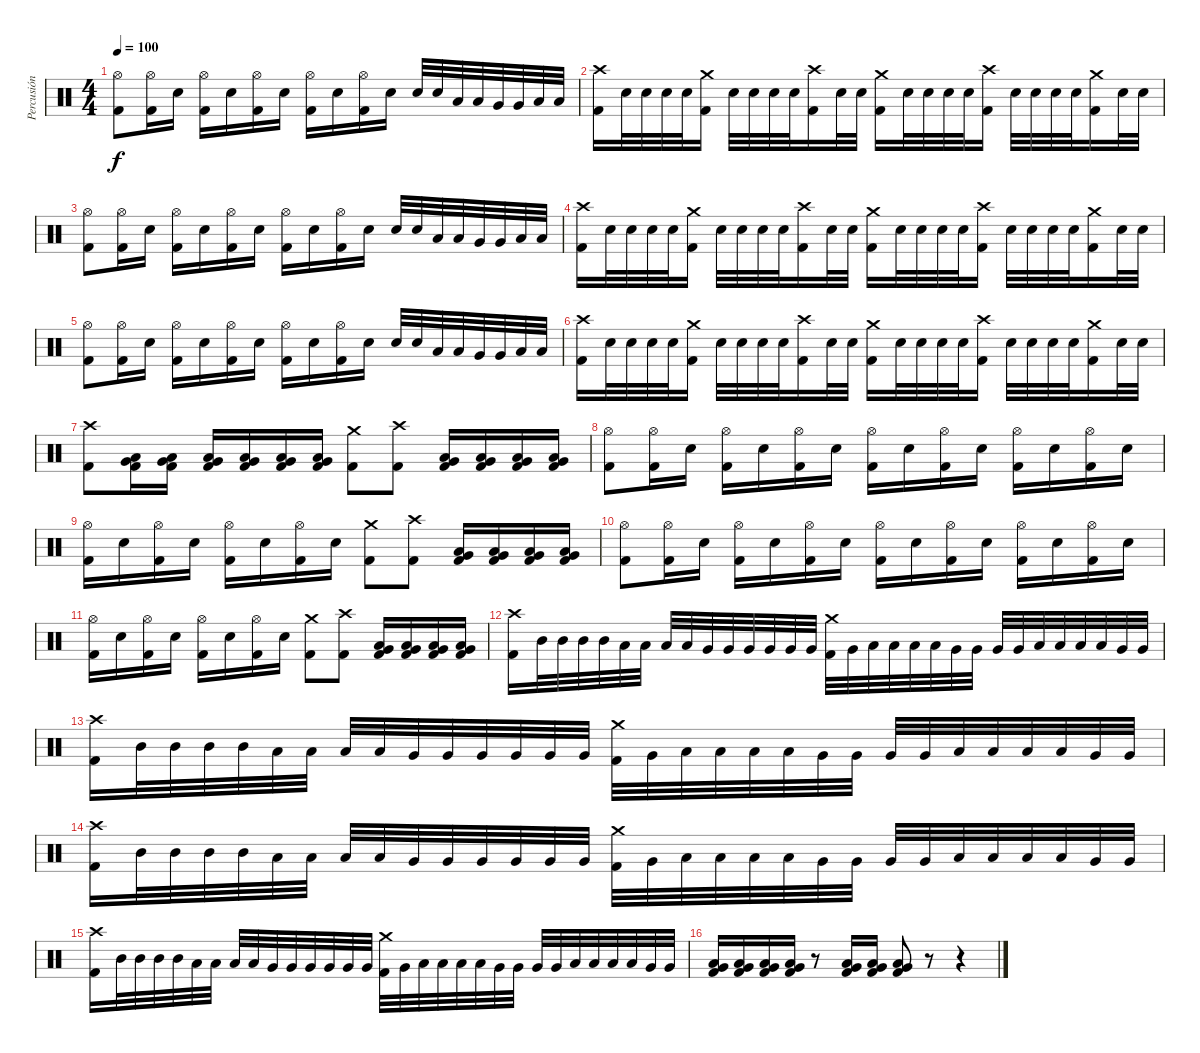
\track ("Percusión" "Percusión") {instrument percussion}
\staff {score}
\articulation defaults
\ts (4 4)
\tempo 100
\clef neutral
\ks c
("Hi-Hat (open)" "Kick (hit) 2").8{dy f} ("Hi-Hat (open)" "Kick (hit) 2").16 "Snare (hit) 2".16 ("Hi-Hat (open)" "Kick (hit) 2").16 "Snare (hit) 2".16 ("Hi-Hat (open)" "Kick (hit) 2").16 "Snare (hit) 2".16 ("Hi-Hat (open)" "Kick (hit) 2").16 "Snare (hit) 2".16 ("Hi-Hat (open)" "Kick (hit) 2").16 "Snare (hit) 2".16 "Snare (hit) 2".32 "Snare (hit) 2".32 "Low Tom (hit)".32 "Low Tom (hit)".32 "Very Low Tom (hit)".32 "Very Low Tom (hit)".32 "Low Floor Tom (hit)".32 "Low Floor Tom (hit)".32 |
("Crash high (hit)" "Kick (hit) 2").16 "Snare (hit) 2".32 "Snare (hit) 2".32 "Snare (hit) 2".32 "Snare (hit) 2".32 ("Crash medium (hit)" "Kick (hit) 2").16 "Snare (hit) 2".32 "Snare (hit) 2".32 "Snare (hit) 2".32 "Snare (hit) 2".32 ("Crash high (hit)" "Kick (hit) 2").16 "Snare (hit) 2".32 "Snare (hit) 2".32 ("Crash medium (hit)" "Kick (hit) 2").16 "Snare (hit) 2".32 "Snare (hit) 2".32 "Snare (hit) 2".32 "Snare (hit) 2".32 ("Crash high (hit)" "Kick (hit) 2").16 "Snare (hit) 2".32 "Snare (hit) 2".32 "Snare (hit) 2".32 "Snare (hit) 2".32 ("Kick (hit) 2" "Crash medium (hit)").16 "Snare (hit) 2".32 "Snare (hit) 2".32 |
("Hi-Hat (open)" "Kick (hit) 2").8 ("Hi-Hat (open)" "Kick (hit) 2").16 "Snare (hit) 2".16 ("Hi-Hat (open)" "Kick (hit) 2").16 "Snare (hit) 2".16 ("Hi-Hat (open)" "Kick (hit) 2").16 "Snare (hit) 2".16 ("Hi-Hat (open)" "Kick (hit) 2").16 "Snare (hit) 2".16 ("Hi-Hat (open)" "Kick (hit) 2").16 "Snare (hit) 2".16 "Snare (hit) 2".32 "Snare (hit) 2".32 "Low Tom (hit)".32 "Low Tom (hit)".32 "Very Low Tom (hit)".32 "Very Low Tom (hit)".32 "Low Floor Tom (hit)".32 "Low Floor Tom (hit)".32 |
("Crash high (hit)" "Kick (hit) 2").16 "Snare (hit) 2".32 "Snare (hit) 2".32 "Snare (hit) 2".32 "Snare (hit) 2".32 ("Crash medium (hit)" "Kick (hit) 2").16 "Snare (hit) 2".32 "Snare (hit) 2".32 "Snare (hit) 2".32 "Snare (hit) 2".32 ("Crash high (hit)" "Kick (hit) 2").16 "Snare (hit) 2".32 "Snare (hit) 2".32 ("Crash medium (hit)" "Kick (hit) 2").16 "Snare (hit) 2".32 "Snare (hit) 2".32 "Snare (hit) 2".32 "Snare (hit) 2".32 ("Crash high (hit)" "Kick (hit) 2").16 "Snare (hit) 2".32 "Snare (hit) 2".32 "Snare (hit) 2".32 "Snare (hit) 2".32 ("Kick (hit) 2" "Crash medium (hit)").16 "Snare (hit) 2".32 "Snare (hit) 2".32 |
("Hi-Hat (open)" "Kick (hit) 2").8 ("Hi-Hat (open)" "Kick (hit) 2").16 "Snare (hit) 2".16 ("Hi-Hat (open)" "Kick (hit) 2").16 "Snare (hit) 2".16 ("Hi-Hat (open)" "Kick (hit) 2").16 "Snare (hit) 2".16 ("Hi-Hat (open)" "Kick (hit) 2").16 "Snare (hit) 2".16 ("Hi-Hat (open)" "Kick (hit) 2").16 "Snare (hit) 2".16 "Snare (hit) 2".32 "Snare (hit) 2".32 "Low Tom (hit)".32 "Low Tom (hit)".32 "Very Low Tom (hit)".32 "Very Low Tom (hit)".32 "Low Floor Tom (hit)".32 "Low Floor Tom (hit)".32 |
("Crash high (hit)" "Kick (hit) 2").16 "Snare (hit) 2".32 "Snare (hit) 2".32 "Snare (hit) 2".32 "Snare (hit) 2".32 ("Crash medium (hit)" "Kick (hit) 2").16 "Snare (hit) 2".32 "Snare (hit) 2".32 "Snare (hit) 2".32 "Snare (hit) 2".32 ("Crash high (hit)" "Kick (hit) 2").16 "Snare (hit) 2".32 "Snare (hit) 2".32 ("Crash medium (hit)" "Kick (hit) 2").16 "Snare (hit) 2".32 "Snare (hit) 2".32 "Snare (hit) 2".32 "Snare (hit) 2".32 ("Crash high (hit)" "Kick (hit) 2").16 "Snare (hit) 2".32 "Snare (hit) 2".32 "Snare (hit) 2".32 "Snare (hit) 2".32 ("Kick (hit) 2" "Crash medium (hit)").16 "Snare (hit) 2".32 "Snare (hit) 2".32 |
("Kick (hit) 2" "Crash high (hit)").8 ("Low Floor Tom (hit)" "Very Low Tom (hit)" "Kick (hit) 2").16 ("Low Floor Tom (hit)" "Very Low Tom (hit)" "Kick (hit) 2").16 ("Low Floor Tom (hit)" "Very Low Tom (hit)" "Kick (hit) 2").16 ("Low Floor Tom (hit)" "Very Low Tom (hit)" "Kick (hit) 2").16 ("Low Floor Tom (hit)" "Very Low Tom (hit)" "Kick (hit) 2").16 ("Low Floor Tom (hit)" "Very Low Tom (hit)" "Kick (hit) 2").16 ("Crash medium (hit)" "Kick (hit) 2").8 ("Crash high (hit)" "Kick (hit) 2").8 ("Low Floor Tom (hit)" "Very Low Tom (hit)" "Kick (hit) 2").16 ("Low Floor Tom (hit)" "Very Low Tom (hit)" "Kick (hit) 2").16 ("Low Floor Tom (hit)" "Very Low Tom (hit)" "Kick (hit) 2").16 ("Low Floor Tom (hit)" "Very Low Tom (hit)" "Kick (hit) 2").16 |
("Hi-Hat (open)" "Kick (hit) 2").8 ("Hi-Hat (open)" "Kick (hit) 2").16 "Snare (hit) 2".16 ("Hi-Hat (open)" "Kick (hit) 2").16 "Snare (hit) 2".16 ("Hi-Hat (open)" "Kick (hit) 2").16 "Snare (hit) 2".16 ("Hi-Hat (open)" "Kick (hit) 2").16 "Snare (hit) 2".16 ("Hi-Hat (open)" "Kick (hit) 2").16 "Snare (hit) 2".16 ("Hi-Hat (open)" "Kick (hit) 2").16 "Snare (hit) 2".16 ("Hi-Hat (open)" "Kick (hit) 2").16 "Snare (hit) 2".16 |
("Hi-Hat (open)" "Kick (hit) 2").16 "Snare (hit) 2".16 ("Hi-Hat (open)" "Kick (hit) 2").16 "Snare (hit) 2".16 ("Hi-Hat (open)" "Kick (hit) 2").16 "Snare (hit) 2".16 ("Hi-Hat (open)" "Kick (hit) 2").16 "Snare (hit) 2".16 ("Crash medium (hit)" "Kick (hit) 2").8 ("Crash high (hit)" "Kick (hit) 2").8 ("Low Floor Tom (hit)" "Very Low Tom (hit)" "Kick (hit) 2").16 ("Low Floor Tom (hit)" "Very Low Tom (hit)" "Kick (hit) 2").16 ("Low Floor Tom (hit)" "Very Low Tom (hit)" "Kick (hit) 2").16 ("Low Floor Tom (hit)" "Very Low Tom (hit)" "Kick (hit) 2").16 |
("Hi-Hat (open)" "Kick (hit) 2").8 ("Hi-Hat (open)" "Kick (hit) 2").16 "Snare (hit) 2".16 ("Hi-Hat (open)" "Kick (hit) 2").16 "Snare (hit) 2".16 ("Hi-Hat (open)" "Kick (hit) 2").16 "Snare (hit) 2".16 ("Hi-Hat (open)" "Kick (hit) 2").16 "Snare (hit) 2".16 ("Hi-Hat (open)" "Kick (hit) 2").16 "Snare (hit) 2".16 ("Hi-Hat (open)" "Kick (hit) 2").16 "Snare (hit) 2".16 ("Hi-Hat (open)" "Kick (hit) 2").16 "Snare (hit) 2".16 |
("Hi-Hat (open)" "Kick (hit) 2").16 "Snare (hit) 2".16 ("Hi-Hat (open)" "Kick (hit) 2").16 "Snare (hit) 2".16 ("Hi-Hat (open)" "Kick (hit) 2").16 "Snare (hit) 2".16 ("Hi-Hat (open)" "Kick (hit) 2").16 "Snare (hit) 2".16 ("Crash medium (hit)" "Kick (hit) 2").8 ("Crash high (hit)" "Kick (hit) 2").8 ("Low Floor Tom (hit)" "Very Low Tom (hit)" "Kick (hit) 2").16 ("Low Floor Tom (hit)" "Very Low Tom (hit)" "Kick (hit) 2").16 ("Low Floor Tom (hit)" "Very Low Tom (hit)" "Kick (hit) 2").16 ("Low Floor Tom (hit)" "Very Low Tom (hit)" "Kick (hit) 2").16 |
("Crash high (hit)" "Kick (hit) 2").16 "Mid Tom (hit)".32 "Mid Tom (hit)".32 "Mid Tom (hit)".32 "Mid Tom (hit)".32 "Low Tom (hit)".32 "Low Tom (hit)".32 "Low Tom (hit)".32 "Low Tom (hit)".32 "Very Low Tom (hit)".32 "Very Low Tom (hit)".32 "Very Low Tom (hit)".32 "Very Low Tom (hit)".32 "Very Low Tom (hit)".32 "Very Low Tom (hit)".32 ("Crash medium (hit)" "Kick (hit) 2").32 "Very Low Tom (hit)".32 "Low Floor Tom (hit)".32 "Low Floor Tom (hit)".32 "Low Floor Tom (hit)".32 "Low Floor Tom (hit)".32 "Very Low Tom (hit)".32 "Very Low Tom (hit)".32 "Very Low Tom (hit)".32 "Very Low Tom (hit)".32 "Low Floor Tom (hit)".32 "Low Floor Tom (hit)".32 "Low Floor Tom (hit)".32 "Low Floor Tom (hit)".32 "Very Low Tom (hit)".32 "Very Low Tom (hit)".32 |
("Crash high (hit)" "Kick (hit) 2").16 "Mid Tom (hit)".32 "Mid Tom (hit)".32 "Mid Tom (hit)".32 "Mid Tom (hit)".32 "Low Tom (hit)".32 "Low Tom (hit)".32 "Low Tom (hit)".32 "Low Tom (hit)".32 "Very Low Tom (hit)".32 "Very Low Tom (hit)".32 "Very Low Tom (hit)".32 "Very Low Tom (hit)".32 "Very Low Tom (hit)".32 "Very Low Tom (hit)".32 ("Crash medium (hit)" "Kick (hit) 2").32 "Very Low Tom (hit)".32 "Low Floor Tom (hit)".32 "Low Floor Tom (hit)".32 "Low Floor Tom (hit)".32 "Low Floor Tom (hit)".32 "Very Low Tom (hit)".32 "Very Low Tom (hit)".32 "Very Low Tom (hit)".32 "Very Low Tom (hit)".32 "Low Floor Tom (hit)".32 "Low Floor Tom (hit)".32 "Low Floor Tom (hit)".32 "Low Floor Tom (hit)".32 "Very Low Tom (hit)".32 "Very Low Tom (hit)".32 |
("Crash high (hit)" "Kick (hit) 2").16 "Mid Tom (hit)".32 "Mid Tom (hit)".32 "Mid Tom (hit)".32 "Mid Tom (hit)".32 "Low Tom (hit)".32 "Low Tom (hit)".32 "Low Tom (hit)".32 "Low Tom (hit)".32 "Very Low Tom (hit)".32 "Very Low Tom (hit)".32 "Very Low Tom (hit)".32 "Very Low Tom (hit)".32 "Very Low Tom (hit)".32 "Very Low Tom (hit)".32 ("Crash medium (hit)" "Kick (hit) 2").32 "Very Low Tom (hit)".32 "Low Floor Tom (hit)".32 "Low Floor Tom (hit)".32 "Low Floor Tom (hit)".32 "Low Floor Tom (hit)".32 "Very Low Tom (hit)".32 "Very Low Tom (hit)".32 "Very Low Tom (hit)".32 "Very Low Tom (hit)".32 "Low Floor Tom (hit)".32 "Low Floor Tom (hit)".32 "Low Floor Tom (hit)".32 "Low Floor Tom (hit)".32 "Very Low Tom (hit)".32 "Very Low Tom (hit)".32 |
("Crash high (hit)" "Kick (hit) 2").16 "Mid Tom (hit)".32 "Mid Tom (hit)".32 "Mid Tom (hit)".32 "Mid Tom (hit)".32 "Low Tom (hit)".32 "Low Tom (hit)".32 "Low Tom (hit)".32 "Low Tom (hit)".32 "Very Low Tom (hit)".32 "Very Low Tom (hit)".32 "Very Low Tom (hit)".32 "Very Low Tom (hit)".32 "Very Low Tom (hit)".32 "Very Low Tom (hit)".32 ("Crash medium (hit)" "Kick (hit) 2").32 "Very Low Tom (hit)".32 "Low Floor Tom (hit)".32 "Low Floor Tom (hit)".32 "Low Floor Tom (hit)".32 "Low Floor Tom (hit)".32 "Very Low Tom (hit)".32 "Very Low Tom (hit)".32 "Very Low Tom (hit)".32 "Very Low Tom (hit)".32 "Low Floor Tom (hit)".32 "Low Floor Tom (hit)".32 "Low Floor Tom (hit)".32 "Low Floor Tom (hit)".32 "Very Low Tom (hit)".32 "Very Low Tom (hit)".32 |
("Kick (hit) 2" "Very Low Tom (hit)" "Low Floor Tom (hit)").16 ("Kick (hit) 2" "Very Low Tom (hit)" "Low Floor Tom (hit)").16 ("Kick (hit) 2" "Very Low Tom (hit)" "Low Floor Tom (hit)").16 ("Kick (hit) 2" "Very Low Tom (hit)" "Low Floor Tom (hit)").16 r.8 ("Kick (hit) 2" "Very Low Tom (hit)" "Low Floor Tom (hit)").16 ("Kick (hit) 2" "Very Low Tom (hit)" "Low Floor Tom (hit)").16 ("Kick (hit) 2" "Very Low Tom (hit)" "Low Floor Tom (hit)").8 r.8 r.4
